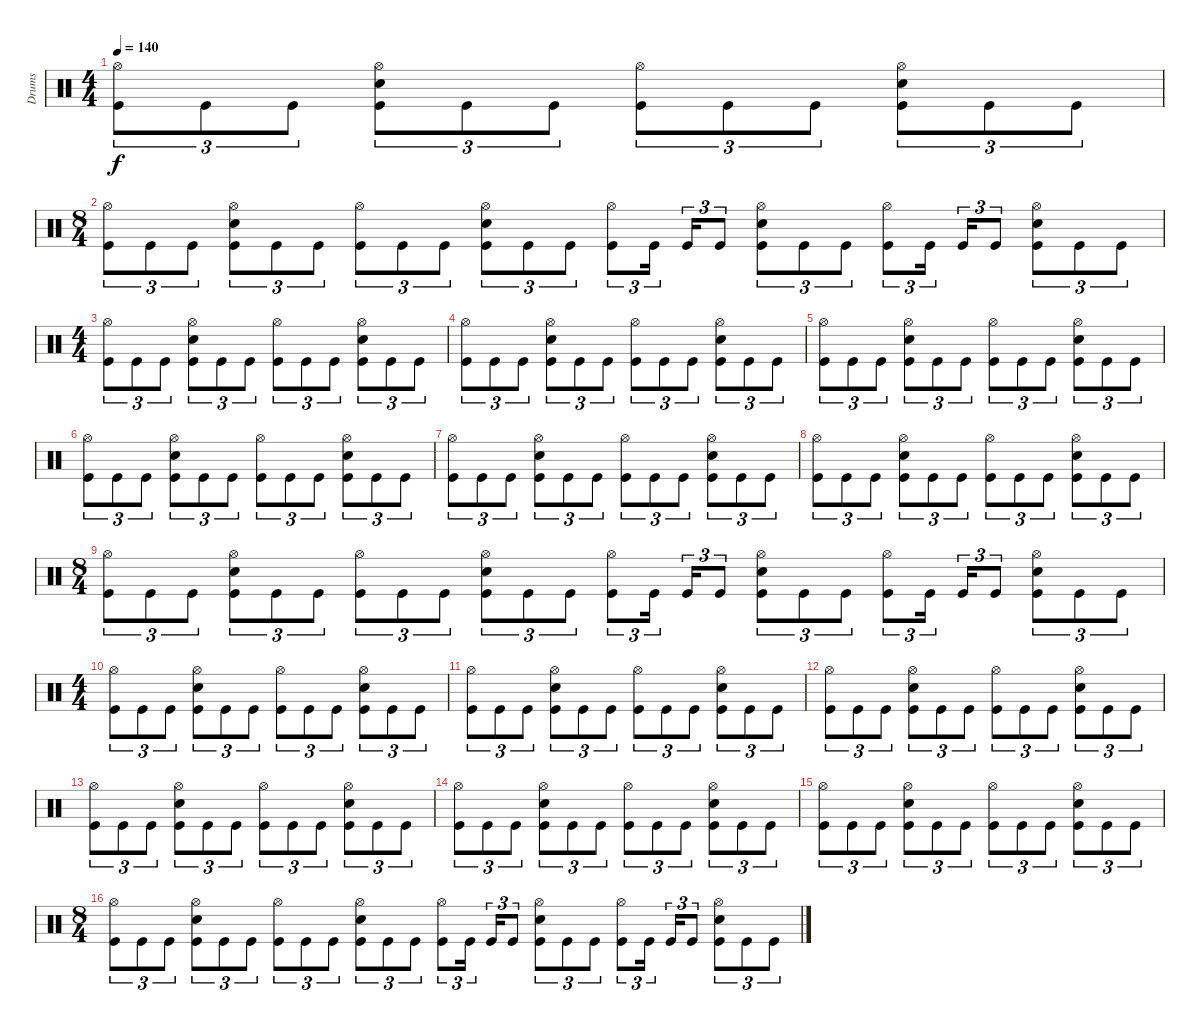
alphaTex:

\track ("Drums" "Drums") {instrument percussion}
\staff {score}
\articulation defaults
\ts (4 4)
\tempo 140
\clef neutral
\ks c
("Hi-Hat (open)" "Kick (hit)").8{tu (3 2) dy f} "Kick (hit)".8{tu (3 2)} "Kick (hit)".8{tu (3 2)} ("Hi-Hat (open)" "Snare (hit) 2" "Kick (hit)").8{tu (3 2)} "Kick (hit)".8{tu (3 2)} "Kick (hit)".8{tu (3 2)} ("Hi-Hat (open)" "Kick (hit)").8{tu (3 2)} "Kick (hit)".8{tu (3 2)} "Kick (hit)".8{tu (3 2)} ("Hi-Hat (open)" "Snare (hit) 2" "Kick (hit)").8{tu (3 2)} "Kick (hit)".8{tu (3 2)} "Kick (hit)".8{tu (3 2)} |
\ts (8 4)
("Hi-Hat (open)" "Kick (hit)").8{tu (3 2)} "Kick (hit)".8{tu (3 2)} "Kick (hit)".8{tu (3 2)} ("Hi-Hat (open)" "Snare (hit) 2" "Kick (hit)").8{tu (3 2)} "Kick (hit)".8{tu (3 2)} "Kick (hit)".8{tu (3 2)} ("Hi-Hat (open)" "Kick (hit)").8{tu (3 2)} "Kick (hit)".8{tu (3 2)} "Kick (hit)".8{tu (3 2)} ("Hi-Hat (open)" "Snare (hit) 2" "Kick (hit)").8{tu (3 2)} "Kick (hit)".8{tu (3 2)} "Kick (hit)".8{tu (3 2)} ("Hi-Hat (open)" "Kick (hit)").8{tu (3 2)} "Kick (hit)".16{tu (3 2)} "Kick (hit)".16{tu (3 2)} "Kick (hit)".8{tu (3 2)} ("Hi-Hat (open)" "Snare (hit) 2" "Kick (hit)").8{tu (3 2)} "Kick (hit)".8{tu (3 2)} "Kick (hit)".8{tu (3 2)} ("Hi-Hat (open)" "Kick (hit)").8{tu (3 2)} "Kick (hit)".16{tu (3 2)} "Kick (hit)".16{tu (3 2)} "Kick (hit)".8{tu (3 2)} ("Hi-Hat (open)" "Snare (hit) 2" "Kick (hit)").8{tu (3 2)} "Kick (hit)".8{tu (3 2)} "Kick (hit)".8{tu (3 2)} |
\ts (4 4)
("Hi-Hat (open)" "Kick (hit)").8{tu (3 2)} "Kick (hit)".8{tu (3 2)} "Kick (hit)".8{tu (3 2)} ("Hi-Hat (open)" "Snare (hit) 2" "Kick (hit)").8{tu (3 2)} "Kick (hit)".8{tu (3 2)} "Kick (hit)".8{tu (3 2)} ("Hi-Hat (open)" "Kick (hit)").8{tu (3 2)} "Kick (hit)".8{tu (3 2)} "Kick (hit)".8{tu (3 2)} ("Hi-Hat (open)" "Snare (hit) 2" "Kick (hit)").8{tu (3 2)} "Kick (hit)".8{tu (3 2)} "Kick (hit)".8{tu (3 2)} |
("Hi-Hat (open)" "Kick (hit)").8{tu (3 2)} "Kick (hit)".8{tu (3 2)} "Kick (hit)".8{tu (3 2)} ("Hi-Hat (open)" "Snare (hit) 2" "Kick (hit)").8{tu (3 2)} "Kick (hit)".8{tu (3 2)} "Kick (hit)".8{tu (3 2)} ("Hi-Hat (open)" "Kick (hit)").8{tu (3 2)} "Kick (hit)".8{tu (3 2)} "Kick (hit)".8{tu (3 2)} ("Hi-Hat (open)" "Snare (hit) 2" "Kick (hit)").8{tu (3 2)} "Kick (hit)".8{tu (3 2)} "Kick (hit)".8{tu (3 2)} |
("Hi-Hat (open)" "Kick (hit)").8{tu (3 2)} "Kick (hit)".8{tu (3 2)} "Kick (hit)".8{tu (3 2)} ("Hi-Hat (open)" "Snare (hit) 2" "Kick (hit)").8{tu (3 2)} "Kick (hit)".8{tu (3 2)} "Kick (hit)".8{tu (3 2)} ("Hi-Hat (open)" "Kick (hit)").8{tu (3 2)} "Kick (hit)".8{tu (3 2)} "Kick (hit)".8{tu (3 2)} ("Hi-Hat (open)" "Snare (hit) 2" "Kick (hit)").8{tu (3 2)} "Kick (hit)".8{tu (3 2)} "Kick (hit)".8{tu (3 2)} |
("Hi-Hat (open)" "Kick (hit)").8{tu (3 2)} "Kick (hit)".8{tu (3 2)} "Kick (hit)".8{tu (3 2)} ("Hi-Hat (open)" "Snare (hit) 2" "Kick (hit)").8{tu (3 2)} "Kick (hit)".8{tu (3 2)} "Kick (hit)".8{tu (3 2)} ("Hi-Hat (open)" "Kick (hit)").8{tu (3 2)} "Kick (hit)".8{tu (3 2)} "Kick (hit)".8{tu (3 2)} ("Hi-Hat (open)" "Snare (hit) 2" "Kick (hit)").8{tu (3 2)} "Kick (hit)".8{tu (3 2)} "Kick (hit)".8{tu (3 2)} |
("Hi-Hat (open)" "Kick (hit)").8{tu (3 2)} "Kick (hit)".8{tu (3 2)} "Kick (hit)".8{tu (3 2)} ("Hi-Hat (open)" "Snare (hit) 2" "Kick (hit)").8{tu (3 2)} "Kick (hit)".8{tu (3 2)} "Kick (hit)".8{tu (3 2)} ("Hi-Hat (open)" "Kick (hit)").8{tu (3 2)} "Kick (hit)".8{tu (3 2)} "Kick (hit)".8{tu (3 2)} ("Hi-Hat (open)" "Snare (hit) 2" "Kick (hit)").8{tu (3 2)} "Kick (hit)".8{tu (3 2)} "Kick (hit)".8{tu (3 2)} |
("Hi-Hat (open)" "Kick (hit)").8{tu (3 2)} "Kick (hit)".8{tu (3 2)} "Kick (hit)".8{tu (3 2)} ("Hi-Hat (open)" "Snare (hit) 2" "Kick (hit)").8{tu (3 2)} "Kick (hit)".8{tu (3 2)} "Kick (hit)".8{tu (3 2)} ("Hi-Hat (open)" "Kick (hit)").8{tu (3 2)} "Kick (hit)".8{tu (3 2)} "Kick (hit)".8{tu (3 2)} ("Hi-Hat (open)" "Snare (hit) 2" "Kick (hit)").8{tu (3 2)} "Kick (hit)".8{tu (3 2)} "Kick (hit)".8{tu (3 2)} |
\ts (8 4)
("Hi-Hat (open)" "Kick (hit)").8{tu (3 2)} "Kick (hit)".8{tu (3 2)} "Kick (hit)".8{tu (3 2)} ("Hi-Hat (open)" "Snare (hit) 2" "Kick (hit)").8{tu (3 2)} "Kick (hit)".8{tu (3 2)} "Kick (hit)".8{tu (3 2)} ("Hi-Hat (open)" "Kick (hit)").8{tu (3 2)} "Kick (hit)".8{tu (3 2)} "Kick (hit)".8{tu (3 2)} ("Hi-Hat (open)" "Snare (hit) 2" "Kick (hit)").8{tu (3 2)} "Kick (hit)".8{tu (3 2)} "Kick (hit)".8{tu (3 2)} ("Hi-Hat (open)" "Kick (hit)").8{tu (3 2)} "Kick (hit)".16{tu (3 2)} "Kick (hit)".16{tu (3 2)} "Kick (hit)".8{tu (3 2)} ("Hi-Hat (open)" "Snare (hit) 2" "Kick (hit)").8{tu (3 2)} "Kick (hit)".8{tu (3 2)} "Kick (hit)".8{tu (3 2)} ("Hi-Hat (open)" "Kick (hit)").8{tu (3 2)} "Kick (hit)".16{tu (3 2)} "Kick (hit)".16{tu (3 2)} "Kick (hit)".8{tu (3 2)} ("Hi-Hat (open)" "Snare (hit) 2" "Kick (hit)").8{tu (3 2)} "Kick (hit)".8{tu (3 2)} "Kick (hit)".8{tu (3 2)} |
\ts (4 4)
("Hi-Hat (open)" "Kick (hit)").8{tu (3 2)} "Kick (hit)".8{tu (3 2)} "Kick (hit)".8{tu (3 2)} ("Hi-Hat (open)" "Snare (hit) 2" "Kick (hit)").8{tu (3 2)} "Kick (hit)".8{tu (3 2)} "Kick (hit)".8{tu (3 2)} ("Hi-Hat (open)" "Kick (hit)").8{tu (3 2)} "Kick (hit)".8{tu (3 2)} "Kick (hit)".8{tu (3 2)} ("Hi-Hat (open)" "Snare (hit) 2" "Kick (hit)").8{tu (3 2)} "Kick (hit)".8{tu (3 2)} "Kick (hit)".8{tu (3 2)} |
("Hi-Hat (open)" "Kick (hit)").8{tu (3 2)} "Kick (hit)".8{tu (3 2)} "Kick (hit)".8{tu (3 2)} ("Hi-Hat (open)" "Snare (hit) 2" "Kick (hit)").8{tu (3 2)} "Kick (hit)".8{tu (3 2)} "Kick (hit)".8{tu (3 2)} ("Hi-Hat (open)" "Kick (hit)").8{tu (3 2)} "Kick (hit)".8{tu (3 2)} "Kick (hit)".8{tu (3 2)} ("Hi-Hat (open)" "Snare (hit) 2" "Kick (hit)").8{tu (3 2)} "Kick (hit)".8{tu (3 2)} "Kick (hit)".8{tu (3 2)} |
("Hi-Hat (open)" "Kick (hit)").8{tu (3 2)} "Kick (hit)".8{tu (3 2)} "Kick (hit)".8{tu (3 2)} ("Hi-Hat (open)" "Snare (hit) 2" "Kick (hit)").8{tu (3 2)} "Kick (hit)".8{tu (3 2)} "Kick (hit)".8{tu (3 2)} ("Hi-Hat (open)" "Kick (hit)").8{tu (3 2)} "Kick (hit)".8{tu (3 2)} "Kick (hit)".8{tu (3 2)} ("Hi-Hat (open)" "Snare (hit) 2" "Kick (hit)").8{tu (3 2)} "Kick (hit)".8{tu (3 2)} "Kick (hit)".8{tu (3 2)} |
("Hi-Hat (open)" "Kick (hit)").8{tu (3 2)} "Kick (hit)".8{tu (3 2)} "Kick (hit)".8{tu (3 2)} ("Hi-Hat (open)" "Snare (hit) 2" "Kick (hit)").8{tu (3 2)} "Kick (hit)".8{tu (3 2)} "Kick (hit)".8{tu (3 2)} ("Hi-Hat (open)" "Kick (hit)").8{tu (3 2)} "Kick (hit)".8{tu (3 2)} "Kick (hit)".8{tu (3 2)} ("Hi-Hat (open)" "Snare (hit) 2" "Kick (hit)").8{tu (3 2)} "Kick (hit)".8{tu (3 2)} "Kick (hit)".8{tu (3 2)} |
("Hi-Hat (open)" "Kick (hit)").8{tu (3 2)} "Kick (hit)".8{tu (3 2)} "Kick (hit)".8{tu (3 2)} ("Hi-Hat (open)" "Snare (hit) 2" "Kick (hit)").8{tu (3 2)} "Kick (hit)".8{tu (3 2)} "Kick (hit)".8{tu (3 2)} ("Hi-Hat (open)" "Kick (hit)").8{tu (3 2)} "Kick (hit)".8{tu (3 2)} "Kick (hit)".8{tu (3 2)} ("Hi-Hat (open)" "Snare (hit) 2" "Kick (hit)").8{tu (3 2)} "Kick (hit)".8{tu (3 2)} "Kick (hit)".8{tu (3 2)} |
("Hi-Hat (open)" "Kick (hit)").8{tu (3 2)} "Kick (hit)".8{tu (3 2)} "Kick (hit)".8{tu (3 2)} ("Hi-Hat (open)" "Snare (hit) 2" "Kick (hit)").8{tu (3 2)} "Kick (hit)".8{tu (3 2)} "Kick (hit)".8{tu (3 2)} ("Hi-Hat (open)" "Kick (hit)").8{tu (3 2)} "Kick (hit)".8{tu (3 2)} "Kick (hit)".8{tu (3 2)} ("Hi-Hat (open)" "Snare (hit) 2" "Kick (hit)").8{tu (3 2)} "Kick (hit)".8{tu (3 2)} "Kick (hit)".8{tu (3 2)} |
\ts (8 4)
("Hi-Hat (open)" "Kick (hit)").8{tu (3 2)} "Kick (hit)".8{tu (3 2)} "Kick (hit)".8{tu (3 2)} ("Hi-Hat (open)" "Snare (hit) 2" "Kick (hit)").8{tu (3 2)} "Kick (hit)".8{tu (3 2)} "Kick (hit)".8{tu (3 2)} ("Hi-Hat (open)" "Kick (hit)").8{tu (3 2)} "Kick (hit)".8{tu (3 2)} "Kick (hit)".8{tu (3 2)} ("Hi-Hat (open)" "Snare (hit) 2" "Kick (hit)").8{tu (3 2)} "Kick (hit)".8{tu (3 2)} "Kick (hit)".8{tu (3 2)} ("Hi-Hat (open)" "Kick (hit)").8{tu (3 2)} "Kick (hit)".16{tu (3 2)} "Kick (hit)".16{tu (3 2)} "Kick (hit)".8{tu (3 2)} ("Hi-Hat (open)" "Snare (hit) 2" "Kick (hit)").8{tu (3 2)} "Kick (hit)".8{tu (3 2)} "Kick (hit)".8{tu (3 2)} ("Hi-Hat (open)" "Kick (hit)").8{tu (3 2)} "Kick (hit)".16{tu (3 2)} "Kick (hit)".16{tu (3 2)} "Kick (hit)".8{tu (3 2)} ("Hi-Hat (open)" "Snare (hit) 2" "Kick (hit)").8{tu (3 2)} "Kick (hit)".8{tu (3 2)} "Kick (hit)".8{tu (3 2)}
